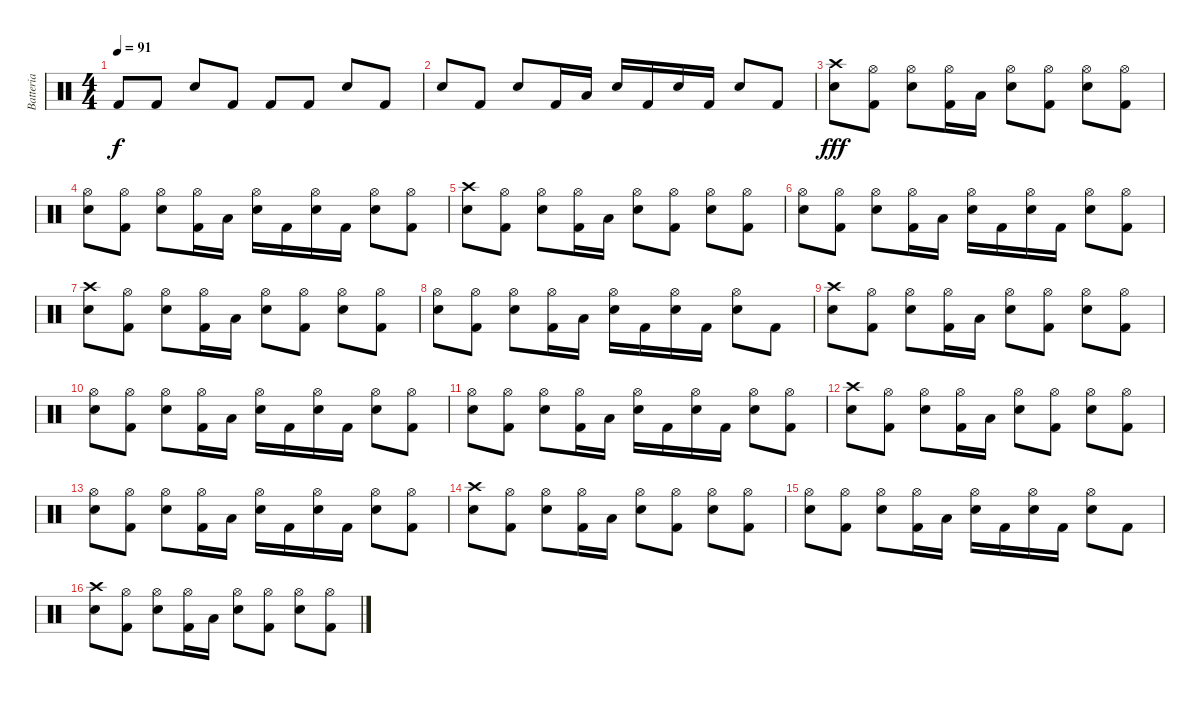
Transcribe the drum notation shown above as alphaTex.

\track ("Batteria" "Batteria") {instrument percussion}
\staff {score}
\articulation defaults
\ts (4 4)
\tempo 91
\clef neutral
\ks c "Kick (hit) 2".8{dy f} "Kick (hit) 2".8 "Electric Snare (hit)".8 "Kick (hit) 2".8 "Kick (hit) 2".8 "Kick (hit) 2".8 "Electric Snare (hit)".8 "Kick (hit) 2".8
|
"Electric Snare (hit)".8 "Kick (hit) 2".8 "Electric Snare (hit)".8 "Kick (hit) 2".16 "Low Floor Tom (hit)".16 "Electric Snare (hit)".16 "Kick (hit) 2".16 "Electric Snare (hit)".16 "Kick (hit) 2".16 "Electric Snare (hit)".8 "Kick (hit) 2".8 |
("Crash high (hit)" "Electric Snare (hit)").8{dy fff} ("Hi-Hat (open)" "Kick (hit) 2").8 ("Hi-Hat (open)" "Electric Snare (hit)").8 ("Hi-Hat (open)" "Kick (hit) 2").16 "Low Floor Tom (hit)".16 ("Hi-Hat (open)" "Electric Snare (hit)").8 ("Hi-Hat (open)" "Kick (hit) 2").8 ("Hi-Hat (open)" "Electric Snare (hit)").8 ("Hi-Hat (open)" "Kick (hit) 2").8 |
("Hi-Hat (open)" "Electric Snare (hit)").8 ("Hi-Hat (open)" "Kick (hit) 2").8 ("Hi-Hat (open)" "Electric Snare (hit)").8 ("Hi-Hat (open)" "Kick (hit) 2").16 "Low Floor Tom (hit)".16 ("Hi-Hat (open)" "Electric Snare (hit)").16 "Kick (hit) 2".16 ("Hi-Hat (open)" "Electric Snare (hit)").16 "Kick (hit) 2".16 ("Hi-Hat (open)" "Electric Snare (hit)").8 ("Hi-Hat (open)" "Kick (hit) 2").8 |
("Crash high (hit)" "Electric Snare (hit)").8 ("Hi-Hat (open)" "Kick (hit) 2").8 ("Hi-Hat (open)" "Electric Snare (hit)").8 ("Hi-Hat (open)" "Kick (hit) 2").16 "Low Floor Tom (hit)".16 ("Hi-Hat (open)" "Electric Snare (hit)").8 ("Hi-Hat (open)" "Kick (hit) 2").8 ("Hi-Hat (open)" "Electric Snare (hit)").8 ("Hi-Hat (open)" "Kick (hit) 2").8 |
("Hi-Hat (open)" "Electric Snare (hit)").8 ("Hi-Hat (open)" "Kick (hit) 2").8 ("Hi-Hat (open)" "Electric Snare (hit)").8 ("Hi-Hat (open)" "Kick (hit) 2").16 "Low Floor Tom (hit)".16 ("Hi-Hat (open)" "Electric Snare (hit)").16 "Kick (hit) 2".16 ("Hi-Hat (open)" "Electric Snare (hit)").16 "Kick (hit) 2".16 ("Hi-Hat (open)" "Electric Snare (hit)").8 ("Hi-Hat (open)" "Kick (hit) 2").8 |
("Crash high (hit)" "Electric Snare (hit)").8 ("Hi-Hat (open)" "Kick (hit) 2").8 ("Hi-Hat (open)" "Electric Snare (hit)").8 ("Hi-Hat (open)" "Kick (hit) 2").16 "Low Floor Tom (hit)".16 ("Hi-Hat (open)" "Electric Snare (hit)").8 ("Hi-Hat (open)" "Kick (hit) 2").8 ("Hi-Hat (open)" "Electric Snare (hit)").8 ("Hi-Hat (open)" "Kick (hit) 2").8 |
("Hi-Hat (open)" "Electric Snare (hit)").8 ("Hi-Hat (open)" "Kick (hit) 2").8 ("Hi-Hat (open)" "Electric Snare (hit)").8 ("Hi-Hat (open)" "Kick (hit) 2").16 "Low Floor Tom (hit)".16 ("Hi-Hat (open)" "Electric Snare (hit)").16 "Kick (hit) 2".16 ("Hi-Hat (open)" "Electric Snare (hit)").16 "Kick (hit) 2".16 ("Hi-Hat (open)" "Electric Snare (hit)").8 "Kick (hit) 2".8 |
("Crash high (hit)" "Electric Snare (hit)").8 ("Hi-Hat (open)" "Kick (hit) 2").8 ("Hi-Hat (open)" "Electric Snare (hit)").8 ("Hi-Hat (open)" "Kick (hit) 2").16 "Low Floor Tom (hit)".16 ("Hi-Hat (open)" "Electric Snare (hit)").8 ("Hi-Hat (open)" "Kick (hit) 2").8 ("Hi-Hat (open)" "Electric Snare (hit)").8 ("Hi-Hat (open)" "Kick (hit) 2").8 |
("Hi-Hat (open)" "Electric Snare (hit)").8 ("Hi-Hat (open)" "Kick (hit) 2").8 ("Hi-Hat (open)" "Electric Snare (hit)").8 ("Hi-Hat (open)" "Kick (hit) 2").16 "Low Floor Tom (hit)".16 ("Hi-Hat (open)" "Electric Snare (hit)").16 "Kick (hit) 2".16 ("Hi-Hat (open)" "Electric Snare (hit)").16 "Kick (hit) 2".16 ("Hi-Hat (open)" "Electric Snare (hit)").8 ("Hi-Hat (open)" "Kick (hit) 2").8 |
("Hi-Hat (open)" "Electric Snare (hit)").8 ("Hi-Hat (open)" "Kick (hit) 2").8 ("Hi-Hat (open)" "Electric Snare (hit)").8 ("Hi-Hat (open)" "Kick (hit) 2").16 "Low Floor Tom (hit)".16 ("Hi-Hat (open)" "Electric Snare (hit)").16 "Kick (hit) 2".16 ("Hi-Hat (open)" "Electric Snare (hit)").16 "Kick (hit) 2".16 ("Hi-Hat (open)" "Electric Snare (hit)").8 ("Hi-Hat (open)" "Kick (hit) 2").8 |
("Crash high (hit)" "Electric Snare (hit)").8 ("Hi-Hat (open)" "Kick (hit) 2").8 ("Hi-Hat (open)" "Electric Snare (hit)").8 ("Hi-Hat (open)" "Kick (hit) 2").16 "Low Floor Tom (hit)".16 ("Hi-Hat (open)" "Electric Snare (hit)").8 ("Hi-Hat (open)" "Kick (hit) 2").8 ("Hi-Hat (open)" "Electric Snare (hit)").8 ("Hi-Hat (open)" "Kick (hit) 2").8 |
("Hi-Hat (open)" "Electric Snare (hit)").8 ("Hi-Hat (open)" "Kick (hit) 2").8 ("Hi-Hat (open)" "Electric Snare (hit)").8 ("Hi-Hat (open)" "Kick (hit) 2").16 "Low Floor Tom (hit)".16 ("Hi-Hat (open)" "Electric Snare (hit)").16 "Kick (hit) 2".16 ("Hi-Hat (open)" "Electric Snare (hit)").16 "Kick (hit) 2".16 ("Hi-Hat (open)" "Electric Snare (hit)").8 ("Hi-Hat (open)" "Kick (hit) 2").8 |
("Crash high (hit)" "Electric Snare (hit)").8 ("Hi-Hat (open)" "Kick (hit) 2").8 ("Hi-Hat (open)" "Electric Snare (hit)").8 ("Hi-Hat (open)" "Kick (hit) 2").16 "Low Floor Tom (hit)".16 ("Hi-Hat (open)" "Electric Snare (hit)").8 ("Hi-Hat (open)" "Kick (hit) 2").8 ("Hi-Hat (open)" "Electric Snare (hit)").8 ("Hi-Hat (open)" "Kick (hit) 2").8 |
("Hi-Hat (open)" "Electric Snare (hit)").8 ("Hi-Hat (open)" "Kick (hit) 2").8 ("Hi-Hat (open)" "Electric Snare (hit)").8 ("Hi-Hat (open)" "Kick (hit) 2").16 "Low Floor Tom (hit)".16 ("Hi-Hat (open)" "Electric Snare (hit)").16 "Kick (hit) 2".16 ("Hi-Hat (open)" "Electric Snare (hit)").16 "Kick (hit) 2".16 ("Hi-Hat (open)" "Electric Snare (hit)").8 "Kick (hit) 2".8 |
("Crash high (hit)" "Electric Snare (hit)").8 ("Hi-Hat (open)" "Kick (hit) 2").8 ("Hi-Hat (open)" "Electric Snare (hit)").8 ("Hi-Hat (open)" "Kick (hit) 2").16 "Low Floor Tom (hit)".16 ("Hi-Hat (open)" "Electric Snare (hit)").8 ("Hi-Hat (open)" "Kick (hit) 2").8 ("Hi-Hat (open)" "Electric Snare (hit)").8 ("Hi-Hat (open)" "Kick (hit) 2").8
